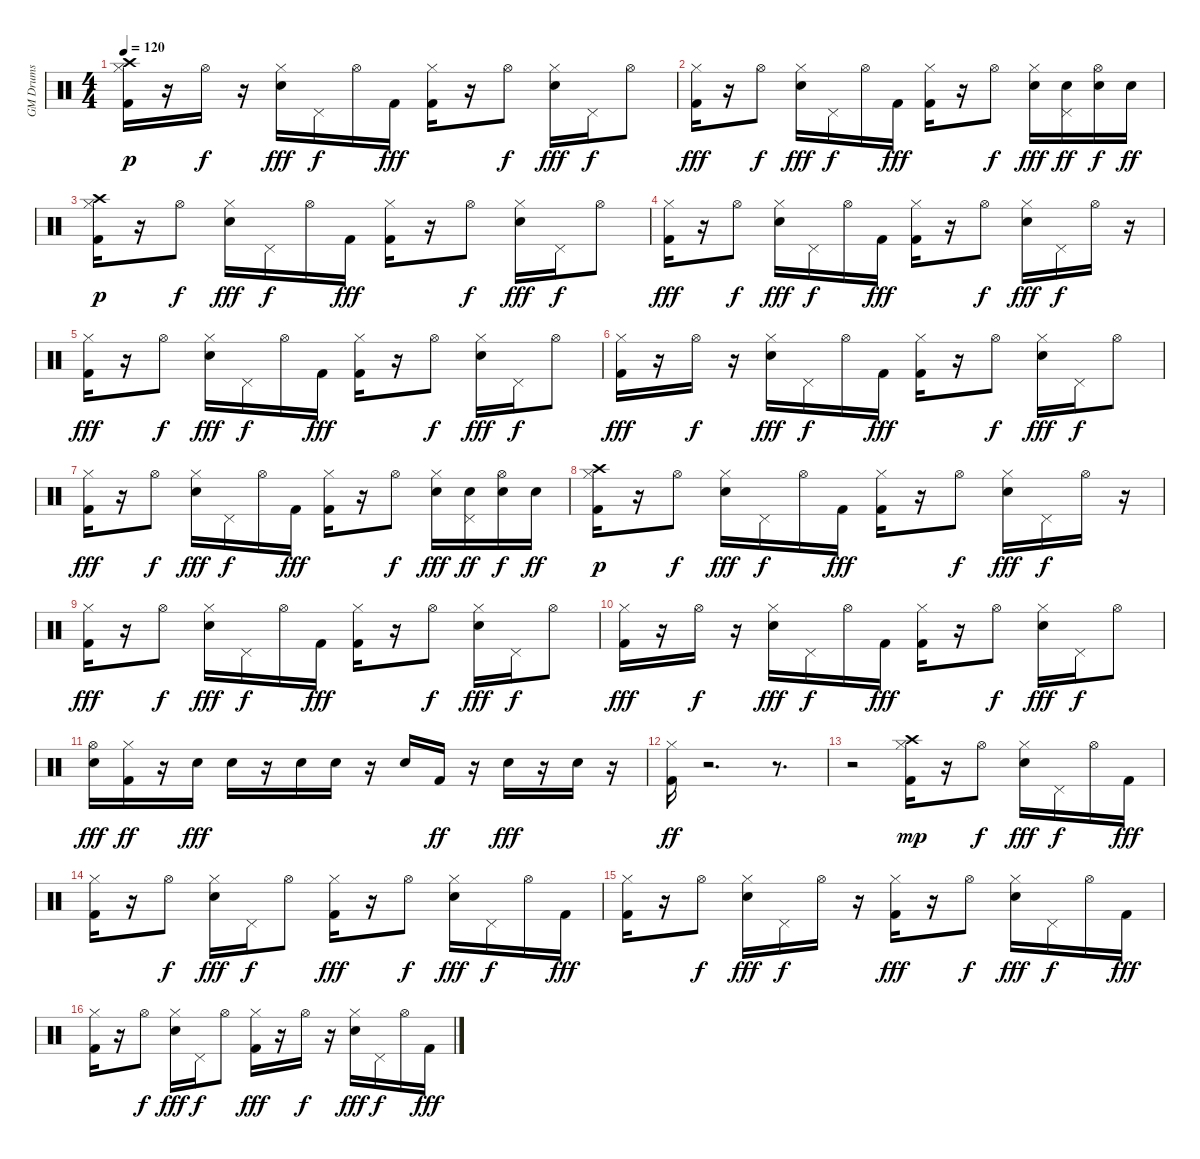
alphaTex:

\track ("GM Drums" "GM Drums") {instrument percussion}
\staff {score}
\articulation defaults
\ts (4 4)
\tempo 120
\clef neutral
\ks c
("Kick (hit) 2" "Hi-Hat (closed)" "Crash high (hit)").16{dy p} r.16 "Hi-Hat (open)".16{dy f} r.16 ("Electric Snare (hit)" "Hi-Hat (closed)").16{dy fff} "Pedal Hi-Hat (hit)".16{dy f} "Hi-Hat (open)".16 "Kick (hit) 2".16{dy fff} ("Kick (hit) 2" "Hi-Hat (closed)").16 r.16 "Hi-Hat (open)".8{dy f} ("Electric Snare (hit)" "Hi-Hat (closed)").16{dy fff} "Pedal Hi-Hat (hit)".16{dy f} "Hi-Hat (open)".8 |
("Kick (hit) 2" "Hi-Hat (closed)").16{dy fff} r.16 "Hi-Hat (open)".8{dy f} ("Electric Snare (hit)" "Hi-Hat (closed)").16{dy fff} "Pedal Hi-Hat (hit)".16{dy f} "Hi-Hat (open)".16 "Kick (hit) 2".16{dy fff} ("Kick (hit) 2" "Hi-Hat (closed)").16 r.16 "Hi-Hat (open)".8{dy f} ("Electric Snare (hit)" "Hi-Hat (closed)").16{dy fff} ("Electric Snare (hit)" "Pedal Hi-Hat (hit)").16{dy ff} ("Electric Snare (hit)" "Hi-Hat (open)").16{dy f} "Electric Snare (hit)".16{dy ff} |
("Kick (hit) 2" "Hi-Hat (closed)" "Crash high (hit)").16{dy p} r.16 "Hi-Hat (open)".8{dy f} ("Electric Snare (hit)" "Hi-Hat (closed)").16{dy fff} "Pedal Hi-Hat (hit)".16{dy f} "Hi-Hat (open)".16 "Kick (hit) 2".16{dy fff} ("Kick (hit) 2" "Hi-Hat (closed)").16 r.16 "Hi-Hat (open)".8{dy f} ("Electric Snare (hit)" "Hi-Hat (closed)").16{dy fff} "Pedal Hi-Hat (hit)".16{dy f} "Hi-Hat (open)".8 |
("Kick (hit) 2" "Hi-Hat (closed)").16{dy fff} r.16 "Hi-Hat (open)".8{dy f} ("Electric Snare (hit)" "Hi-Hat (closed)").16{dy fff} "Pedal Hi-Hat (hit)".16{dy f} "Hi-Hat (open)".16 "Kick (hit) 2".16{dy fff} ("Kick (hit) 2" "Hi-Hat (closed)").16 r.16 "Hi-Hat (open)".8{dy f} ("Electric Snare (hit)" "Hi-Hat (closed)").16{dy fff} "Pedal Hi-Hat (hit)".16{dy f} "Hi-Hat (open)".16 r.16 |
("Kick (hit) 2" "Hi-Hat (closed)").16{dy fff} r.16 "Hi-Hat (open)".8{dy f} ("Electric Snare (hit)" "Hi-Hat (closed)").16{dy fff} "Pedal Hi-Hat (hit)".16{dy f} "Hi-Hat (open)".16 "Kick (hit) 2".16{dy fff} ("Kick (hit) 2" "Hi-Hat (closed)").16 r.16 "Hi-Hat (open)".8{dy f} ("Electric Snare (hit)" "Hi-Hat (closed)").16{dy fff} "Pedal Hi-Hat (hit)".16{dy f} "Hi-Hat (open)".8 |
("Kick (hit) 2" "Hi-Hat (closed)").16{dy fff} r.16 "Hi-Hat (open)".16{dy f} r.16 ("Electric Snare (hit)" "Hi-Hat (closed)").16{dy fff} "Pedal Hi-Hat (hit)".16{dy f} "Hi-Hat (open)".16 "Kick (hit) 2".16{dy fff} ("Kick (hit) 2" "Hi-Hat (closed)").16 r.16 "Hi-Hat (open)".8{dy f} ("Electric Snare (hit)" "Hi-Hat (closed)").16{dy fff} "Pedal Hi-Hat (hit)".16{dy f} "Hi-Hat (open)".8 |
("Kick (hit) 2" "Hi-Hat (closed)").16{dy fff} r.16 "Hi-Hat (open)".8{dy f} ("Electric Snare (hit)" "Hi-Hat (closed)").16{dy fff} "Pedal Hi-Hat (hit)".16{dy f} "Hi-Hat (open)".16 "Kick (hit) 2".16{dy fff} ("Kick (hit) 2" "Hi-Hat (closed)").16 r.16 "Hi-Hat (open)".8{dy f} ("Electric Snare (hit)" "Hi-Hat (closed)").16{dy fff} ("Electric Snare (hit)" "Pedal Hi-Hat (hit)").16{dy ff} ("Electric Snare (hit)" "Hi-Hat (open)").16{dy f} "Electric Snare (hit)".16{dy ff} |
("Kick (hit) 2" "Hi-Hat (closed)" "Crash high (hit)").16{dy p} r.16 "Hi-Hat (open)".8{dy f} ("Electric Snare (hit)" "Hi-Hat (closed)").16{dy fff} "Pedal Hi-Hat (hit)".16{dy f} "Hi-Hat (open)".16 "Kick (hit) 2".16{dy fff} ("Kick (hit) 2" "Hi-Hat (closed)").16 r.16 "Hi-Hat (open)".8{dy f} ("Electric Snare (hit)" "Hi-Hat (closed)").16{dy fff} "Pedal Hi-Hat (hit)".16{dy f} "Hi-Hat (open)".16 r.16 |
("Kick (hit) 2" "Hi-Hat (closed)").16{dy fff} r.16 "Hi-Hat (open)".8{dy f} ("Electric Snare (hit)" "Hi-Hat (closed)").16{dy fff} "Pedal Hi-Hat (hit)".16{dy f} "Hi-Hat (open)".16 "Kick (hit) 2".16{dy fff} ("Kick (hit) 2" "Hi-Hat (closed)").16 r.16 "Hi-Hat (open)".8{dy f} ("Electric Snare (hit)" "Hi-Hat (closed)").16{dy fff} "Pedal Hi-Hat (hit)".16{dy f} "Hi-Hat (open)".8 |
("Kick (hit) 2" "Hi-Hat (closed)").16{dy fff} r.16 "Hi-Hat (open)".16{dy f} r.16 ("Electric Snare (hit)" "Hi-Hat (closed)").16{dy fff} "Pedal Hi-Hat (hit)".16{dy f} "Hi-Hat (open)".16 "Kick (hit) 2".16{dy fff} ("Kick (hit) 2" "Hi-Hat (closed)").16 r.16 "Hi-Hat (open)".8{dy f} ("Electric Snare (hit)" "Hi-Hat (closed)").16{dy fff} "Pedal Hi-Hat (hit)".16{dy f} "Hi-Hat (open)".8 |
("Electric Snare (hit)" "Hi-Hat (open)").16{dy fff} ("Kick (hit) 2" "Hi-Hat (closed)").16{dy ff} r.16 "Electric Snare (hit)".16{dy fff} "Electric Snare (hit)".16 r.16 "Electric Snare (hit)".16 "Electric Snare (hit)".16 r.16 "Electric Snare (hit)".16 "Kick (hit) 2".16{dy ff} r.16 "Electric Snare (hit)".16{dy fff} r.16 "Electric Snare (hit)".16 r.16 |
("Kick (hit) 2" "Hi-Hat (closed)").16{dy ff} r.2{d} r.8{d} |
r.2 ("Kick (hit) 2" "Hi-Hat (closed)" "Crash high (hit)").16{dy mp} r.16 "Hi-Hat (open)".8{dy f} ("Electric Snare (hit)" "Hi-Hat (closed)").16{dy fff} "Pedal Hi-Hat (hit)".16{dy f} "Hi-Hat (open)".16 "Kick (hit) 2".16{dy fff} |
("Kick (hit) 2" "Hi-Hat (closed)").16 r.16 "Hi-Hat (open)".8{dy f} ("Electric Snare (hit)" "Hi-Hat (closed)").16{dy fff} "Pedal Hi-Hat (hit)".16{dy f} "Hi-Hat (open)".8 ("Kick (hit) 2" "Hi-Hat (closed)").16{dy fff} r.16 "Hi-Hat (open)".8{dy f} ("Electric Snare (hit)" "Hi-Hat (closed)").16{dy fff} "Pedal Hi-Hat (hit)".16{dy f} "Hi-Hat (open)".16 "Kick (hit) 2".16{dy fff} |
("Kick (hit) 2" "Hi-Hat (closed)").16 r.16 "Hi-Hat (open)".8{dy f} ("Electric Snare (hit)" "Hi-Hat (closed)").16{dy fff} "Pedal Hi-Hat (hit)".16{dy f} "Hi-Hat (open)".16 r.16 ("Kick (hit) 2" "Hi-Hat (closed)").16{dy fff} r.16 "Hi-Hat (open)".8{dy f} ("Electric Snare (hit)" "Hi-Hat (closed)").16{dy fff} "Pedal Hi-Hat (hit)".16{dy f} "Hi-Hat (open)".16 "Kick (hit) 2".16{dy fff} |
("Kick (hit) 2" "Hi-Hat (closed)").16 r.16 "Hi-Hat (open)".8{dy f} ("Electric Snare (hit)" "Hi-Hat (closed)").16{dy fff} "Pedal Hi-Hat (hit)".16{dy f} "Hi-Hat (open)".8 ("Kick (hit) 2" "Hi-Hat (closed)").16{dy fff} r.16 "Hi-Hat (open)".16{dy f} r.16 ("Electric Snare (hit)" "Hi-Hat (closed)").16{dy fff} "Pedal Hi-Hat (hit)".16{dy f} "Hi-Hat (open)".16 "Kick (hit) 2".16{dy fff}
